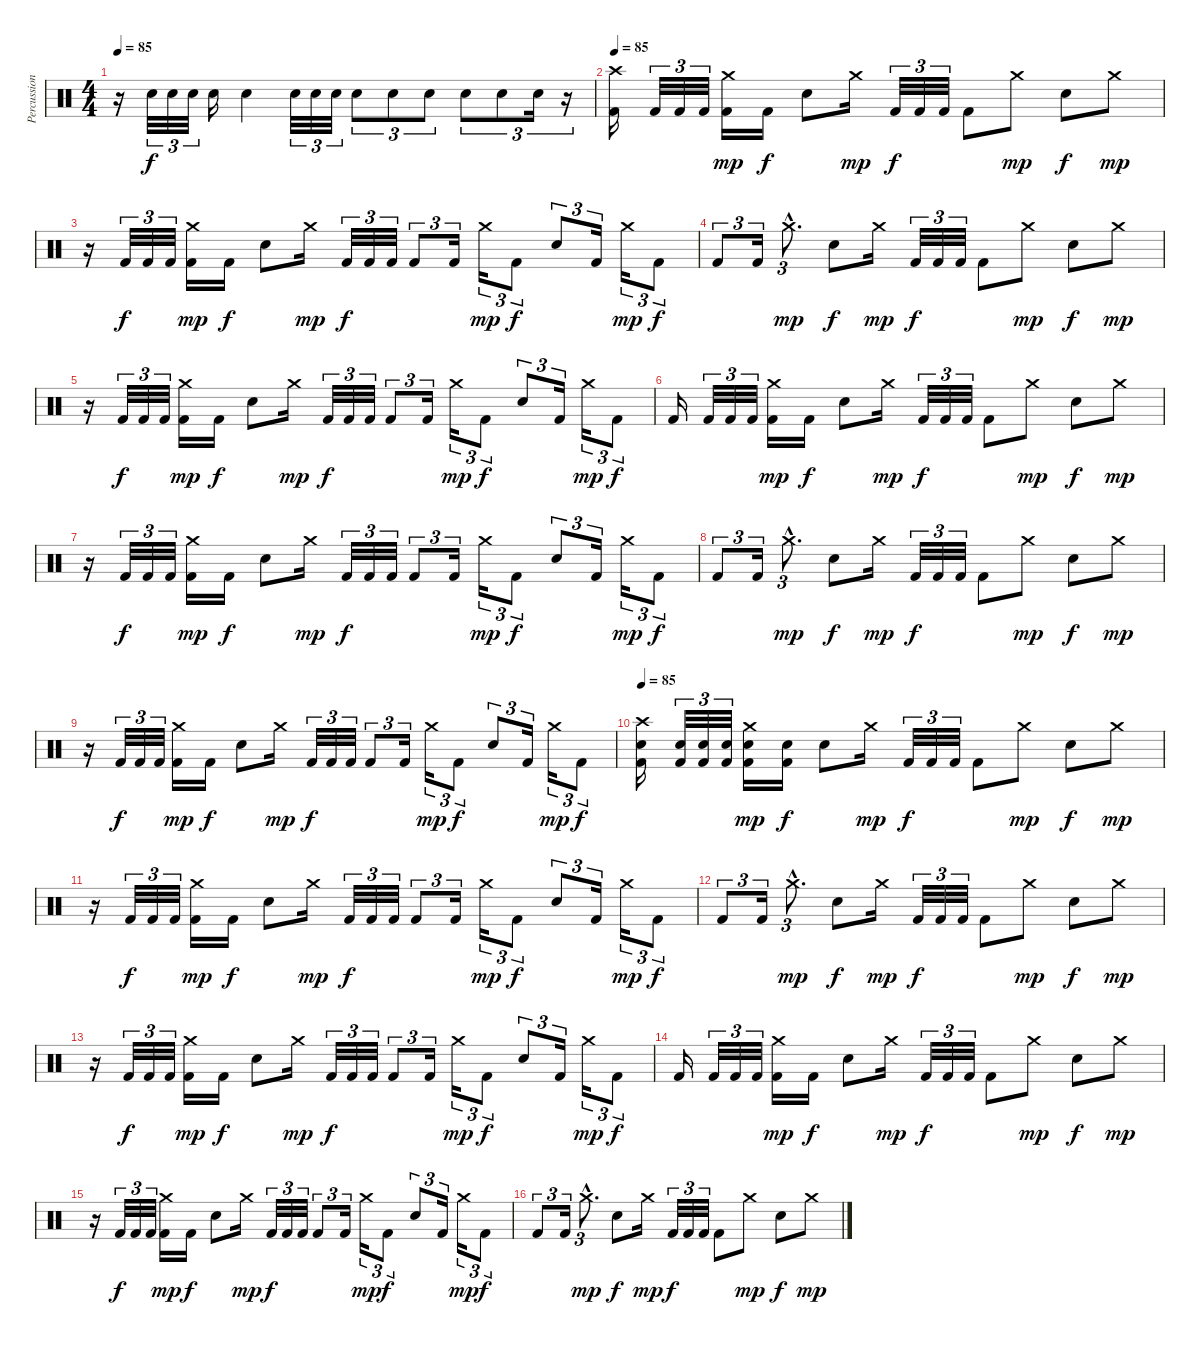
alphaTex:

\track ("Percussion" "Percussion") {instrument percussion}
\staff {score}
\articulation defaults
\ts (4 4)
\tempo 85
\clef neutral
\ks c
r.16{dy f} "Electric Snare (hit)".32{tu (3 2)} "Electric Snare (hit)".32{tu (3 2)} "Electric Snare (hit)".32{tu (3 2)} "Electric Snare (hit)".16 "Electric Snare (hit)".4 "Electric Snare (hit)".32{tu (3 2)} "Electric Snare (hit)".32{tu (3 2)} "Electric Snare (hit)".32{tu (3 2)} "Electric Snare (hit)".8{tu (3 2)} "Electric Snare (hit)".8{tu (3 2)} "Electric Snare (hit)".8{tu (3 2)} "Electric Snare (hit)".8{tu (3 2)} "Electric Snare (hit)".8{tu (3 2)} "Electric Snare (hit)".16{tu (3 2)} r.16{tu (3 2) volume 16} |
\tempo 85
("Kick (hit) 2" "Crash high (hit)").16 "Kick (hit) 2".32{tu (3 2)} "Kick (hit) 2".32{tu (3 2)} "Kick (hit) 2".32{tu (3 2)} ("Kick (hit) 2" "Crash medium (hit)").16{dy mp} "Kick (hit) 2".16{dy f} "Electric Snare (hit)".8 "Crash medium (hit)".16{dy mp} "Kick (hit) 2".32{tu (3 2) dy f} "Kick (hit) 2".32{tu (3 2)} "Kick (hit) 2".32{tu (3 2)} "Kick (hit) 2".8 "Crash medium (hit)".8{dy mp} "Electric Snare (hit)".8{dy f} "Crash medium (hit)".8{dy mp} |
r.16 "Kick (hit) 2".32{tu (3 2) dy f} "Kick (hit) 2".32{tu (3 2)} "Kick (hit) 2".32{tu (3 2)} ("Kick (hit) 2" "Crash medium (hit)").16{dy mp} "Kick (hit) 2".16{dy f} "Electric Snare (hit)".8 "Crash medium (hit)".16{dy mp} "Kick (hit) 2".32{tu (3 2) dy f} "Kick (hit) 2".32{tu (3 2)} "Kick (hit) 2".32{tu (3 2)} "Kick (hit) 2".8{tu (3 2)} "Kick (hit) 2".16{tu (3 2)} "Crash medium (hit)".16{tu (3 2) dy mp} "Kick (hit) 2".8{tu (3 2) dy f} "Electric Snare (hit)".8{tu (3 2)} "Kick (hit) 2".16{tu (3 2)} "Crash medium (hit)".16{tu (3 2) dy mp} "Kick (hit) 2".8{tu (3 2) dy f} |
"Kick (hit) 2".8{tu (3 2)} "Kick (hit) 2".16{tu (3 2)} "Crash medium (hit)"{hac}.8{d tu (3 2) dy mp} "Electric Snare (hit)".8{dy f} "Crash medium (hit)".16{dy mp} "Kick (hit) 2".32{tu (3 2) dy f} "Kick (hit) 2".32{tu (3 2)} "Kick (hit) 2".32{tu (3 2)} "Kick (hit) 2".8 "Crash medium (hit)".8{dy mp} "Electric Snare (hit)".8{dy f} "Crash medium (hit)".8{dy mp} |
r.16 "Kick (hit) 2".32{tu (3 2) dy f} "Kick (hit) 2".32{tu (3 2)} "Kick (hit) 2".32{tu (3 2)} ("Kick (hit) 2" "Crash medium (hit)").16{dy mp} "Kick (hit) 2".16{dy f} "Electric Snare (hit)".8 "Crash medium (hit)".16{dy mp} "Kick (hit) 2".32{tu (3 2) dy f} "Kick (hit) 2".32{tu (3 2)} "Kick (hit) 2".32{tu (3 2)} "Kick (hit) 2".8{tu (3 2)} "Kick (hit) 2".16{tu (3 2)} "Crash medium (hit)".16{tu (3 2) dy mp} "Kick (hit) 2".8{tu (3 2) dy f} "Electric Snare (hit)".8{tu (3 2)} "Kick (hit) 2".16{tu (3 2)} "Crash medium (hit)".16{tu (3 2) dy mp} "Kick (hit) 2".8{tu (3 2) dy f} |
"Kick (hit) 2".16 "Kick (hit) 2".32{tu (3 2)} "Kick (hit) 2".32{tu (3 2)} "Kick (hit) 2".32{tu (3 2)} ("Kick (hit) 2" "Crash medium (hit)").16{dy mp} "Kick (hit) 2".16{dy f} "Electric Snare (hit)".8 "Crash medium (hit)".16{dy mp} "Kick (hit) 2".32{tu (3 2) dy f} "Kick (hit) 2".32{tu (3 2)} "Kick (hit) 2".32{tu (3 2)} "Kick (hit) 2".8 "Crash medium (hit)".8{dy mp} "Electric Snare (hit)".8{dy f} "Crash medium (hit)".8{dy mp} |
r.16 "Kick (hit) 2".32{tu (3 2) dy f} "Kick (hit) 2".32{tu (3 2)} "Kick (hit) 2".32{tu (3 2)} ("Kick (hit) 2" "Crash medium (hit)").16{dy mp} "Kick (hit) 2".16{dy f} "Electric Snare (hit)".8 "Crash medium (hit)".16{dy mp} "Kick (hit) 2".32{tu (3 2) dy f} "Kick (hit) 2".32{tu (3 2)} "Kick (hit) 2".32{tu (3 2)} "Kick (hit) 2".8{tu (3 2)} "Kick (hit) 2".16{tu (3 2)} "Crash medium (hit)".16{tu (3 2) dy mp} "Kick (hit) 2".8{tu (3 2) dy f} "Electric Snare (hit)".8{tu (3 2)} "Kick (hit) 2".16{tu (3 2)} "Crash medium (hit)".16{tu (3 2) dy mp} "Kick (hit) 2".8{tu (3 2) dy f} |
"Kick (hit) 2".8{tu (3 2)} "Kick (hit) 2".16{tu (3 2)} "Crash medium (hit)"{hac}.8{d tu (3 2) dy mp} "Electric Snare (hit)".8{dy f} "Crash medium (hit)".16{dy mp} "Kick (hit) 2".32{tu (3 2) dy f} "Kick (hit) 2".32{tu (3 2)} "Kick (hit) 2".32{tu (3 2)} "Kick (hit) 2".8 "Crash medium (hit)".8{dy mp} "Electric Snare (hit)".8{dy f} "Crash medium (hit)".8{dy mp} |
r.16 "Kick (hit) 2".32{tu (3 2) dy f} "Kick (hit) 2".32{tu (3 2)} "Kick (hit) 2".32{tu (3 2)} ("Kick (hit) 2" "Crash medium (hit)").16{dy mp} "Kick (hit) 2".16{dy f} "Electric Snare (hit)".8 "Crash medium (hit)".16{dy mp} "Kick (hit) 2".32{tu (3 2) dy f} "Kick (hit) 2".32{tu (3 2)} "Kick (hit) 2".32{tu (3 2)} "Kick (hit) 2".8{tu (3 2)} "Kick (hit) 2".16{tu (3 2)} "Crash medium (hit)".16{tu (3 2) dy mp} "Kick (hit) 2".8{tu (3 2) dy f} "Electric Snare (hit)".8{tu (3 2)} "Kick (hit) 2".16{tu (3 2)} "Crash medium (hit)".16{tu (3 2) dy mp} "Kick (hit) 2".8{tu (3 2) dy f} |
\tempo 85
("Kick (hit) 2" "Electric Snare (hit)" "Crash high (hit)").16 ("Kick (hit) 2" "Electric Snare (hit)").32{tu (3 2)} ("Kick (hit) 2" "Electric Snare (hit)").32{tu (3 2)} ("Kick (hit) 2" "Electric Snare (hit)").32{tu (3 2)} ("Kick (hit) 2" "Electric Snare (hit)" "Crash medium (hit)").16{dy mp} ("Kick (hit) 2" "Electric Snare (hit)").16{dy f} "Electric Snare (hit)".8 "Crash medium (hit)".16{dy mp} "Kick (hit) 2".32{tu (3 2) dy f} "Kick (hit) 2".32{tu (3 2)} "Kick (hit) 2".32{tu (3 2)} "Kick (hit) 2".8 "Crash medium (hit)".8{dy mp} "Electric Snare (hit)".8{dy f} "Crash medium (hit)".8{dy mp} |
r.16 "Kick (hit) 2".32{tu (3 2) dy f} "Kick (hit) 2".32{tu (3 2)} "Kick (hit) 2".32{tu (3 2)} ("Kick (hit) 2" "Crash medium (hit)").16{dy mp} "Kick (hit) 2".16{dy f} "Electric Snare (hit)".8 "Crash medium (hit)".16{dy mp} "Kick (hit) 2".32{tu (3 2) dy f} "Kick (hit) 2".32{tu (3 2)} "Kick (hit) 2".32{tu (3 2)} "Kick (hit) 2".8{tu (3 2)} "Kick (hit) 2".16{tu (3 2)} "Crash medium (hit)".16{tu (3 2) dy mp} "Kick (hit) 2".8{tu (3 2) dy f} "Electric Snare (hit)".8{tu (3 2)} "Kick (hit) 2".16{tu (3 2)} "Crash medium (hit)".16{tu (3 2) dy mp} "Kick (hit) 2".8{tu (3 2) dy f} |
"Kick (hit) 2".8{tu (3 2)} "Kick (hit) 2".16{tu (3 2)} "Crash medium (hit)"{hac}.8{d tu (3 2) dy mp} "Electric Snare (hit)".8{dy f} "Crash medium (hit)".16{dy mp} "Kick (hit) 2".32{tu (3 2) dy f} "Kick (hit) 2".32{tu (3 2)} "Kick (hit) 2".32{tu (3 2)} "Kick (hit) 2".8 "Crash medium (hit)".8{dy mp} "Electric Snare (hit)".8{dy f} "Crash medium (hit)".8{dy mp} |
r.16 "Kick (hit) 2".32{tu (3 2) dy f} "Kick (hit) 2".32{tu (3 2)} "Kick (hit) 2".32{tu (3 2)} ("Kick (hit) 2" "Crash medium (hit)").16{dy mp} "Kick (hit) 2".16{dy f} "Electric Snare (hit)".8 "Crash medium (hit)".16{dy mp} "Kick (hit) 2".32{tu (3 2) dy f} "Kick (hit) 2".32{tu (3 2)} "Kick (hit) 2".32{tu (3 2)} "Kick (hit) 2".8{tu (3 2)} "Kick (hit) 2".16{tu (3 2)} "Crash medium (hit)".16{tu (3 2) dy mp} "Kick (hit) 2".8{tu (3 2) dy f} "Electric Snare (hit)".8{tu (3 2)} "Kick (hit) 2".16{tu (3 2)} "Crash medium (hit)".16{tu (3 2) dy mp} "Kick (hit) 2".8{tu (3 2) dy f} |
"Kick (hit) 2".16 "Kick (hit) 2".32{tu (3 2)} "Kick (hit) 2".32{tu (3 2)} "Kick (hit) 2".32{tu (3 2)} ("Kick (hit) 2" "Crash medium (hit)").16{dy mp} "Kick (hit) 2".16{dy f} "Electric Snare (hit)".8 "Crash medium (hit)".16{dy mp} "Kick (hit) 2".32{tu (3 2) dy f} "Kick (hit) 2".32{tu (3 2)} "Kick (hit) 2".32{tu (3 2)} "Kick (hit) 2".8 "Crash medium (hit)".8{dy mp} "Electric Snare (hit)".8{dy f} "Crash medium (hit)".8{dy mp} |
r.16 "Kick (hit) 2".32{tu (3 2) dy f} "Kick (hit) 2".32{tu (3 2)} "Kick (hit) 2".32{tu (3 2)} ("Kick (hit) 2" "Crash medium (hit)").16{dy mp} "Kick (hit) 2".16{dy f} "Electric Snare (hit)".8 "Crash medium (hit)".16{dy mp} "Kick (hit) 2".32{tu (3 2) dy f} "Kick (hit) 2".32{tu (3 2)} "Kick (hit) 2".32{tu (3 2)} "Kick (hit) 2".8{tu (3 2)} "Kick (hit) 2".16{tu (3 2)} "Crash medium (hit)".16{tu (3 2) dy mp} "Kick (hit) 2".8{tu (3 2) dy f} "Electric Snare (hit)".8{tu (3 2)} "Kick (hit) 2".16{tu (3 2)} "Crash medium (hit)".16{tu (3 2) dy mp} "Kick (hit) 2".8{tu (3 2) dy f} |
"Kick (hit) 2".8{tu (3 2)} "Kick (hit) 2".16{tu (3 2)} "Crash medium (hit)"{hac}.8{d tu (3 2) dy mp} "Electric Snare (hit)".8{dy f} "Crash medium (hit)".16{dy mp} "Kick (hit) 2".32{tu (3 2) dy f} "Kick (hit) 2".32{tu (3 2)} "Kick (hit) 2".32{tu (3 2)} "Kick (hit) 2".8 "Crash medium (hit)".8{dy mp} "Electric Snare (hit)".8{dy f} "Crash medium (hit)".8{dy mp}
